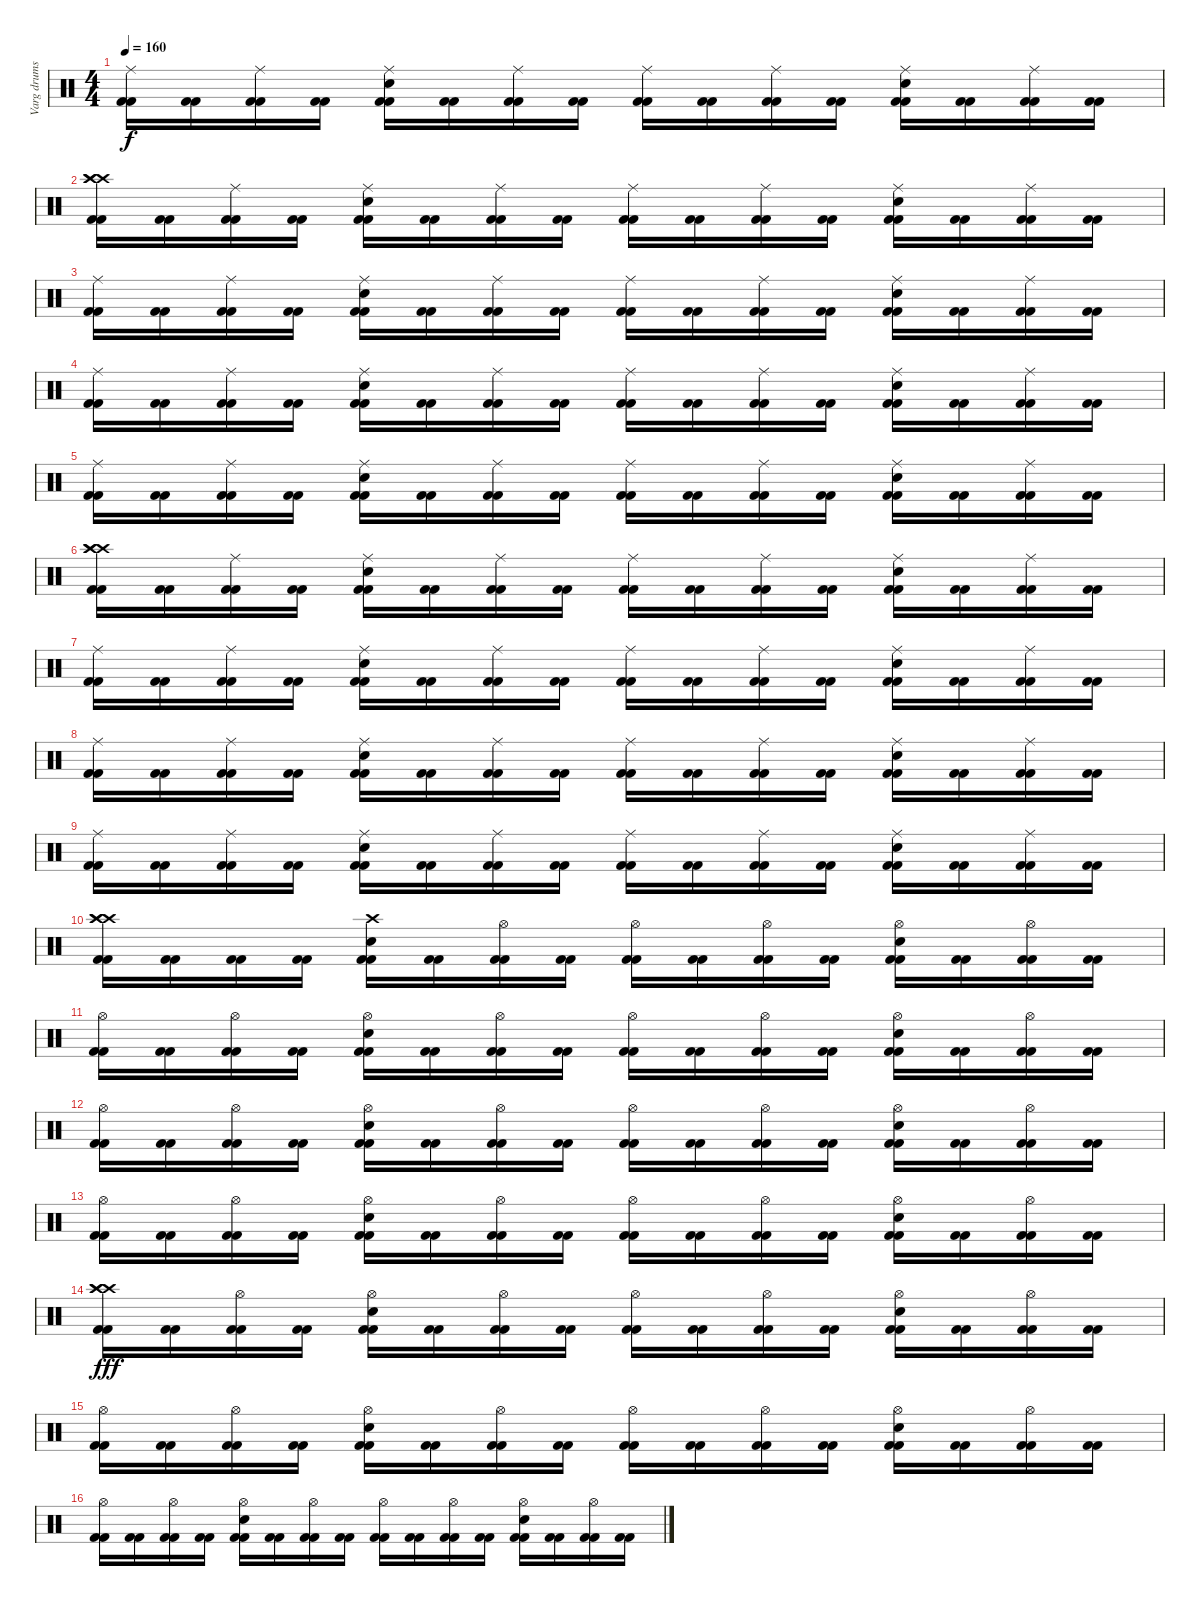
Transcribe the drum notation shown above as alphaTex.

\track ("Varg drums" "Varg drums") {instrument percussion}
\staff {score}
\articulation defaults
\ts (4 4)
\tempo 160
\clef neutral
\ks c
("Ride (middle)" "Kick (hit) 2" "Kick (hit) 2").16{dy f} ("Kick (hit) 2" "Kick (hit) 2").16 ("Ride (middle)" "Kick (hit) 2" "Kick (hit) 2").16 ("Kick (hit) 2" "Kick (hit) 2").16 ("Ride (middle)" "Electric Snare (hit)" "Kick (hit) 2" "Kick (hit) 2").16 ("Kick (hit) 2" "Kick (hit) 2").16 ("Ride (middle)" "Kick (hit) 2" "Kick (hit) 2").16 ("Kick (hit) 2" "Kick (hit) 2").16 ("Ride (middle)" "Kick (hit) 2" "Kick (hit) 2").16 ("Kick (hit) 2" "Kick (hit) 2").16 ("Ride (middle)" "Kick (hit) 2" "Kick (hit) 2").16 ("Kick (hit) 2" "Kick (hit) 2").16 ("Ride (middle)" "Electric Snare (hit)" "Kick (hit) 2" "Kick (hit) 2").16 ("Kick (hit) 2" "Kick (hit) 2").16 ("Ride (middle)" "Kick (hit) 2" "Kick (hit) 2").16 ("Kick (hit) 2" "Kick (hit) 2").16 |
("Crash high (hit)" "Crash high (hit)" "Crash high (hit)" "Kick (hit) 2" "Kick (hit) 2").16 ("Kick (hit) 2" "Kick (hit) 2").16 ("Ride (middle)" "Kick (hit) 2" "Kick (hit) 2").16 ("Kick (hit) 2" "Kick (hit) 2").16 ("Ride (middle)" "Electric Snare (hit)" "Kick (hit) 2" "Kick (hit) 2").16 ("Kick (hit) 2" "Kick (hit) 2").16 ("Ride (middle)" "Kick (hit) 2" "Kick (hit) 2").16 ("Kick (hit) 2" "Kick (hit) 2").16 ("Ride (middle)" "Kick (hit) 2" "Kick (hit) 2").16 ("Kick (hit) 2" "Kick (hit) 2").16 ("Ride (middle)" "Kick (hit) 2" "Kick (hit) 2").16 ("Kick (hit) 2" "Kick (hit) 2").16 ("Ride (middle)" "Electric Snare (hit)" "Kick (hit) 2" "Kick (hit) 2").16 ("Kick (hit) 2" "Kick (hit) 2").16 ("Ride (middle)" "Kick (hit) 2" "Kick (hit) 2").16 ("Kick (hit) 2" "Kick (hit) 2").16 |
("Ride (middle)" "Kick (hit) 2" "Kick (hit) 2").16 ("Kick (hit) 2" "Kick (hit) 2").16 ("Ride (middle)" "Kick (hit) 2" "Kick (hit) 2").16 ("Kick (hit) 2" "Kick (hit) 2").16 ("Ride (middle)" "Electric Snare (hit)" "Kick (hit) 2" "Kick (hit) 2").16 ("Kick (hit) 2" "Kick (hit) 2").16 ("Ride (middle)" "Kick (hit) 2" "Kick (hit) 2").16 ("Kick (hit) 2" "Kick (hit) 2").16 ("Ride (middle)" "Kick (hit) 2" "Kick (hit) 2").16 ("Kick (hit) 2" "Kick (hit) 2").16 ("Ride (middle)" "Kick (hit) 2" "Kick (hit) 2").16 ("Kick (hit) 2" "Kick (hit) 2").16 ("Ride (middle)" "Electric Snare (hit)" "Kick (hit) 2" "Kick (hit) 2").16 ("Kick (hit) 2" "Kick (hit) 2").16 ("Ride (middle)" "Kick (hit) 2" "Kick (hit) 2").16 ("Kick (hit) 2" "Kick (hit) 2").16 |
("Ride (middle)" "Kick (hit) 2" "Kick (hit) 2").16 ("Kick (hit) 2" "Kick (hit) 2").16 ("Ride (middle)" "Kick (hit) 2" "Kick (hit) 2").16 ("Kick (hit) 2" "Kick (hit) 2").16 ("Ride (middle)" "Electric Snare (hit)" "Kick (hit) 2" "Kick (hit) 2").16 ("Kick (hit) 2" "Kick (hit) 2").16 ("Ride (middle)" "Kick (hit) 2" "Kick (hit) 2").16 ("Kick (hit) 2" "Kick (hit) 2").16 ("Ride (middle)" "Kick (hit) 2" "Kick (hit) 2").16 ("Kick (hit) 2" "Kick (hit) 2").16 ("Ride (middle)" "Kick (hit) 2" "Kick (hit) 2").16 ("Kick (hit) 2" "Kick (hit) 2").16 ("Ride (middle)" "Electric Snare (hit)" "Kick (hit) 2" "Kick (hit) 2").16 ("Kick (hit) 2" "Kick (hit) 2").16 ("Ride (middle)" "Kick (hit) 2" "Kick (hit) 2").16 ("Kick (hit) 2" "Kick (hit) 2").16 |
("Ride (middle)" "Kick (hit) 2" "Kick (hit) 2").16 ("Kick (hit) 2" "Kick (hit) 2").16 ("Ride (middle)" "Kick (hit) 2" "Kick (hit) 2").16 ("Kick (hit) 2" "Kick (hit) 2").16 ("Ride (middle)" "Electric Snare (hit)" "Kick (hit) 2" "Kick (hit) 2").16 ("Kick (hit) 2" "Kick (hit) 2").16 ("Ride (middle)" "Kick (hit) 2" "Kick (hit) 2").16 ("Kick (hit) 2" "Kick (hit) 2").16 ("Ride (middle)" "Kick (hit) 2" "Kick (hit) 2").16 ("Kick (hit) 2" "Kick (hit) 2").16 ("Ride (middle)" "Kick (hit) 2" "Kick (hit) 2").16 ("Kick (hit) 2" "Kick (hit) 2").16 ("Ride (middle)" "Electric Snare (hit)" "Kick (hit) 2" "Kick (hit) 2").16 ("Kick (hit) 2" "Kick (hit) 2").16 ("Ride (middle)" "Kick (hit) 2" "Kick (hit) 2").16 ("Kick (hit) 2" "Kick (hit) 2").16 |
("Crash high (hit)" "Crash high (hit)" "Crash high (hit)" "Kick (hit) 2" "Kick (hit) 2").16 ("Kick (hit) 2" "Kick (hit) 2").16 ("Ride (middle)" "Kick (hit) 2" "Kick (hit) 2").16 ("Kick (hit) 2" "Kick (hit) 2").16 ("Ride (middle)" "Electric Snare (hit)" "Kick (hit) 2" "Kick (hit) 2").16 ("Kick (hit) 2" "Kick (hit) 2").16 ("Ride (middle)" "Kick (hit) 2" "Kick (hit) 2").16 ("Kick (hit) 2" "Kick (hit) 2").16 ("Ride (middle)" "Kick (hit) 2" "Kick (hit) 2").16 ("Kick (hit) 2" "Kick (hit) 2").16 ("Ride (middle)" "Kick (hit) 2" "Kick (hit) 2").16 ("Kick (hit) 2" "Kick (hit) 2").16 ("Ride (middle)" "Electric Snare (hit)" "Kick (hit) 2" "Kick (hit) 2").16 ("Kick (hit) 2" "Kick (hit) 2").16 ("Ride (middle)" "Kick (hit) 2" "Kick (hit) 2").16 ("Kick (hit) 2" "Kick (hit) 2").16 |
("Ride (middle)" "Kick (hit) 2" "Kick (hit) 2").16 ("Kick (hit) 2" "Kick (hit) 2").16 ("Ride (middle)" "Kick (hit) 2" "Kick (hit) 2").16 ("Kick (hit) 2" "Kick (hit) 2").16 ("Ride (middle)" "Electric Snare (hit)" "Kick (hit) 2" "Kick (hit) 2").16 ("Kick (hit) 2" "Kick (hit) 2").16 ("Ride (middle)" "Kick (hit) 2" "Kick (hit) 2").16 ("Kick (hit) 2" "Kick (hit) 2").16 ("Ride (middle)" "Kick (hit) 2" "Kick (hit) 2").16 ("Kick (hit) 2" "Kick (hit) 2").16 ("Ride (middle)" "Kick (hit) 2" "Kick (hit) 2").16 ("Kick (hit) 2" "Kick (hit) 2").16 ("Ride (middle)" "Electric Snare (hit)" "Kick (hit) 2" "Kick (hit) 2").16 ("Kick (hit) 2" "Kick (hit) 2").16 ("Ride (middle)" "Kick (hit) 2" "Kick (hit) 2").16 ("Kick (hit) 2" "Kick (hit) 2").16 |
("Ride (middle)" "Kick (hit) 2" "Kick (hit) 2").16 ("Kick (hit) 2" "Kick (hit) 2").16 ("Ride (middle)" "Kick (hit) 2" "Kick (hit) 2").16 ("Kick (hit) 2" "Kick (hit) 2").16 ("Ride (middle)" "Electric Snare (hit)" "Kick (hit) 2" "Kick (hit) 2").16 ("Kick (hit) 2" "Kick (hit) 2").16 ("Ride (middle)" "Kick (hit) 2" "Kick (hit) 2").16 ("Kick (hit) 2" "Kick (hit) 2").16 ("Ride (middle)" "Kick (hit) 2" "Kick (hit) 2").16 ("Kick (hit) 2" "Kick (hit) 2").16 ("Ride (middle)" "Kick (hit) 2" "Kick (hit) 2").16 ("Kick (hit) 2" "Kick (hit) 2").16 ("Ride (middle)" "Electric Snare (hit)" "Kick (hit) 2" "Kick (hit) 2").16 ("Kick (hit) 2" "Kick (hit) 2").16 ("Ride (middle)" "Kick (hit) 2" "Kick (hit) 2").16 ("Kick (hit) 2" "Kick (hit) 2").16 |
("Ride (middle)" "Kick (hit) 2" "Kick (hit) 2").16 ("Kick (hit) 2" "Kick (hit) 2").16 ("Ride (middle)" "Kick (hit) 2" "Kick (hit) 2").16 ("Kick (hit) 2" "Kick (hit) 2").16 ("Ride (middle)" "Electric Snare (hit)" "Kick (hit) 2" "Kick (hit) 2").16 ("Kick (hit) 2" "Kick (hit) 2").16 ("Ride (middle)" "Kick (hit) 2" "Kick (hit) 2").16 ("Kick (hit) 2" "Kick (hit) 2").16 ("Ride (middle)" "Kick (hit) 2" "Kick (hit) 2").16 ("Kick (hit) 2" "Kick (hit) 2").16 ("Ride (middle)" "Kick (hit) 2" "Kick (hit) 2").16 ("Kick (hit) 2" "Kick (hit) 2").16 ("Ride (middle)" "Electric Snare (hit)" "Kick (hit) 2" "Kick (hit) 2").16 ("Kick (hit) 2" "Kick (hit) 2").16 ("Ride (middle)" "Kick (hit) 2" "Kick (hit) 2").16 ("Kick (hit) 2" "Kick (hit) 2").16 |
("Crash high (hit)" "Crash high (hit)" "Crash high (hit)" "Kick (hit) 2" "Kick (hit) 2").16 ("Kick (hit) 2" "Kick (hit) 2").16 ("Kick (hit) 2" "Kick (hit) 2").16 ("Kick (hit) 2" "Kick (hit) 2").16 ("Crash high (hit)" "Electric Snare (hit)" "Kick (hit) 2" "Kick (hit) 2").16 ("Kick (hit) 2" "Kick (hit) 2").16 ("Hi-Hat (open)" "Kick (hit) 2" "Kick (hit) 2").16 ("Kick (hit) 2" "Kick (hit) 2").16 ("Hi-Hat (open)" "Kick (hit) 2" "Kick (hit) 2").16 ("Kick (hit) 2" "Kick (hit) 2").16 ("Hi-Hat (open)" "Kick (hit) 2" "Kick (hit) 2").16 ("Kick (hit) 2" "Kick (hit) 2").16 ("Hi-Hat (open)" "Electric Snare (hit)" "Kick (hit) 2" "Kick (hit) 2").16 ("Kick (hit) 2" "Kick (hit) 2").16 ("Hi-Hat (open)" "Kick (hit) 2" "Kick (hit) 2").16 ("Kick (hit) 2" "Kick (hit) 2").16 |
("Hi-Hat (open)" "Kick (hit) 2" "Kick (hit) 2").16 ("Kick (hit) 2" "Kick (hit) 2").16 ("Hi-Hat (open)" "Kick (hit) 2" "Kick (hit) 2").16 ("Kick (hit) 2" "Kick (hit) 2").16 ("Hi-Hat (open)" "Electric Snare (hit)" "Kick (hit) 2" "Kick (hit) 2").16 ("Kick (hit) 2" "Kick (hit) 2").16 ("Hi-Hat (open)" "Kick (hit) 2" "Kick (hit) 2").16 ("Kick (hit) 2" "Kick (hit) 2").16 ("Hi-Hat (open)" "Kick (hit) 2" "Kick (hit) 2").16 ("Kick (hit) 2" "Kick (hit) 2").16 ("Hi-Hat (open)" "Kick (hit) 2" "Kick (hit) 2").16 ("Kick (hit) 2" "Kick (hit) 2").16 ("Hi-Hat (open)" "Electric Snare (hit)" "Kick (hit) 2" "Kick (hit) 2").16 ("Kick (hit) 2" "Kick (hit) 2").16 ("Hi-Hat (open)" "Kick (hit) 2" "Kick (hit) 2").16 ("Kick (hit) 2" "Kick (hit) 2").16 |
("Hi-Hat (open)" "Kick (hit) 2" "Kick (hit) 2").16 ("Kick (hit) 2" "Kick (hit) 2").16 ("Hi-Hat (open)" "Kick (hit) 2" "Kick (hit) 2").16 ("Kick (hit) 2" "Kick (hit) 2").16 ("Hi-Hat (open)" "Electric Snare (hit)" "Kick (hit) 2" "Kick (hit) 2").16 ("Kick (hit) 2" "Kick (hit) 2").16 ("Hi-Hat (open)" "Kick (hit) 2" "Kick (hit) 2").16 ("Kick (hit) 2" "Kick (hit) 2").16 ("Hi-Hat (open)" "Kick (hit) 2" "Kick (hit) 2").16 ("Kick (hit) 2" "Kick (hit) 2").16 ("Hi-Hat (open)" "Kick (hit) 2" "Kick (hit) 2").16 ("Kick (hit) 2" "Kick (hit) 2").16 ("Hi-Hat (open)" "Electric Snare (hit)" "Kick (hit) 2" "Kick (hit) 2").16 ("Kick (hit) 2" "Kick (hit) 2").16 ("Hi-Hat (open)" "Kick (hit) 2" "Kick (hit) 2").16 ("Kick (hit) 2" "Kick (hit) 2").16 |
("Hi-Hat (open)" "Kick (hit) 2" "Kick (hit) 2").16 ("Kick (hit) 2" "Kick (hit) 2").16 ("Hi-Hat (open)" "Kick (hit) 2" "Kick (hit) 2").16 ("Kick (hit) 2" "Kick (hit) 2").16 ("Hi-Hat (open)" "Electric Snare (hit)" "Kick (hit) 2" "Kick (hit) 2").16 ("Kick (hit) 2" "Kick (hit) 2").16 ("Hi-Hat (open)" "Kick (hit) 2" "Kick (hit) 2").16 ("Kick (hit) 2" "Kick (hit) 2").16 ("Hi-Hat (open)" "Kick (hit) 2" "Kick (hit) 2").16 ("Kick (hit) 2" "Kick (hit) 2").16 ("Hi-Hat (open)" "Kick (hit) 2" "Kick (hit) 2").16 ("Kick (hit) 2" "Kick (hit) 2").16 ("Hi-Hat (open)" "Electric Snare (hit)" "Kick (hit) 2" "Kick (hit) 2").16 ("Kick (hit) 2" "Kick (hit) 2").16 ("Hi-Hat (open)" "Kick (hit) 2" "Kick (hit) 2").16 ("Kick (hit) 2" "Kick (hit) 2").16 |
("Crash high (hit)" "Crash high (hit)" "Crash high (hit)" "Kick (hit) 2" "Kick (hit) 2").16{dy fff} ("Kick (hit) 2" "Kick (hit) 2").16 ("Hi-Hat (open)" "Kick (hit) 2" "Kick (hit) 2").16 ("Kick (hit) 2" "Kick (hit) 2").16 ("Hi-Hat (open)" "Electric Snare (hit)" "Kick (hit) 2" "Kick (hit) 2").16 ("Kick (hit) 2" "Kick (hit) 2").16 ("Hi-Hat (open)" "Kick (hit) 2" "Kick (hit) 2").16 ("Kick (hit) 2" "Kick (hit) 2").16 ("Hi-Hat (open)" "Kick (hit) 2" "Kick (hit) 2").16 ("Kick (hit) 2" "Kick (hit) 2").16 ("Hi-Hat (open)" "Kick (hit) 2" "Kick (hit) 2").16 ("Kick (hit) 2" "Kick (hit) 2").16 ("Hi-Hat (open)" "Electric Snare (hit)" "Kick (hit) 2" "Kick (hit) 2").16 ("Kick (hit) 2" "Kick (hit) 2").16 ("Hi-Hat (open)" "Kick (hit) 2" "Kick (hit) 2").16 ("Kick (hit) 2" "Kick (hit) 2").16 |
("Hi-Hat (open)" "Kick (hit) 2" "Kick (hit) 2").16 ("Kick (hit) 2" "Kick (hit) 2").16 ("Hi-Hat (open)" "Kick (hit) 2" "Kick (hit) 2").16 ("Kick (hit) 2" "Kick (hit) 2").16 ("Hi-Hat (open)" "Electric Snare (hit)" "Kick (hit) 2" "Kick (hit) 2").16 ("Kick (hit) 2" "Kick (hit) 2").16 ("Hi-Hat (open)" "Kick (hit) 2" "Kick (hit) 2").16 ("Kick (hit) 2" "Kick (hit) 2").16 ("Hi-Hat (open)" "Kick (hit) 2" "Kick (hit) 2").16 ("Kick (hit) 2" "Kick (hit) 2").16 ("Hi-Hat (open)" "Kick (hit) 2" "Kick (hit) 2").16 ("Kick (hit) 2" "Kick (hit) 2").16 ("Hi-Hat (open)" "Electric Snare (hit)" "Kick (hit) 2" "Kick (hit) 2").16 ("Kick (hit) 2" "Kick (hit) 2").16 ("Hi-Hat (open)" "Kick (hit) 2" "Kick (hit) 2").16 ("Kick (hit) 2" "Kick (hit) 2").16 |
("Hi-Hat (open)" "Kick (hit) 2" "Kick (hit) 2").16 ("Kick (hit) 2" "Kick (hit) 2").16 ("Hi-Hat (open)" "Kick (hit) 2" "Kick (hit) 2").16 ("Kick (hit) 2" "Kick (hit) 2").16 ("Hi-Hat (open)" "Electric Snare (hit)" "Kick (hit) 2" "Kick (hit) 2").16 ("Kick (hit) 2" "Kick (hit) 2").16 ("Hi-Hat (open)" "Kick (hit) 2" "Kick (hit) 2").16 ("Kick (hit) 2" "Kick (hit) 2").16 ("Hi-Hat (open)" "Kick (hit) 2" "Kick (hit) 2").16 ("Kick (hit) 2" "Kick (hit) 2").16 ("Hi-Hat (open)" "Kick (hit) 2" "Kick (hit) 2").16 ("Kick (hit) 2" "Kick (hit) 2").16 ("Hi-Hat (open)" "Electric Snare (hit)" "Kick (hit) 2" "Kick (hit) 2").16 ("Kick (hit) 2" "Kick (hit) 2").16 ("Hi-Hat (open)" "Kick (hit) 2" "Kick (hit) 2").16 ("Kick (hit) 2" "Kick (hit) 2").16
